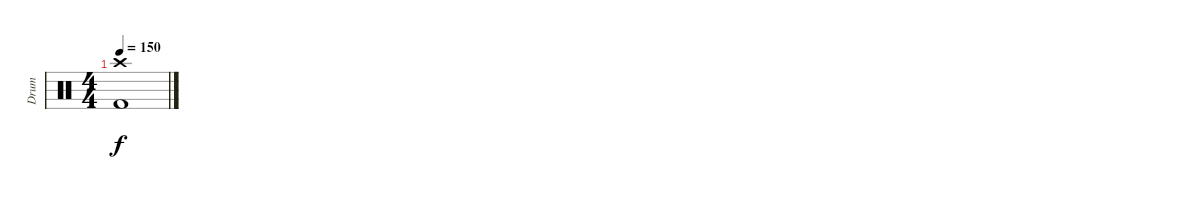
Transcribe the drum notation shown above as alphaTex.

\track ("Drum" "Drum") {instrument percussion}
\staff {score}
\articulation defaults
\ts (4 4)
\tempo 150
\clef neutral
\ks c
("Crash high (hit)" "Kick (hit) 2").1{dy f}
